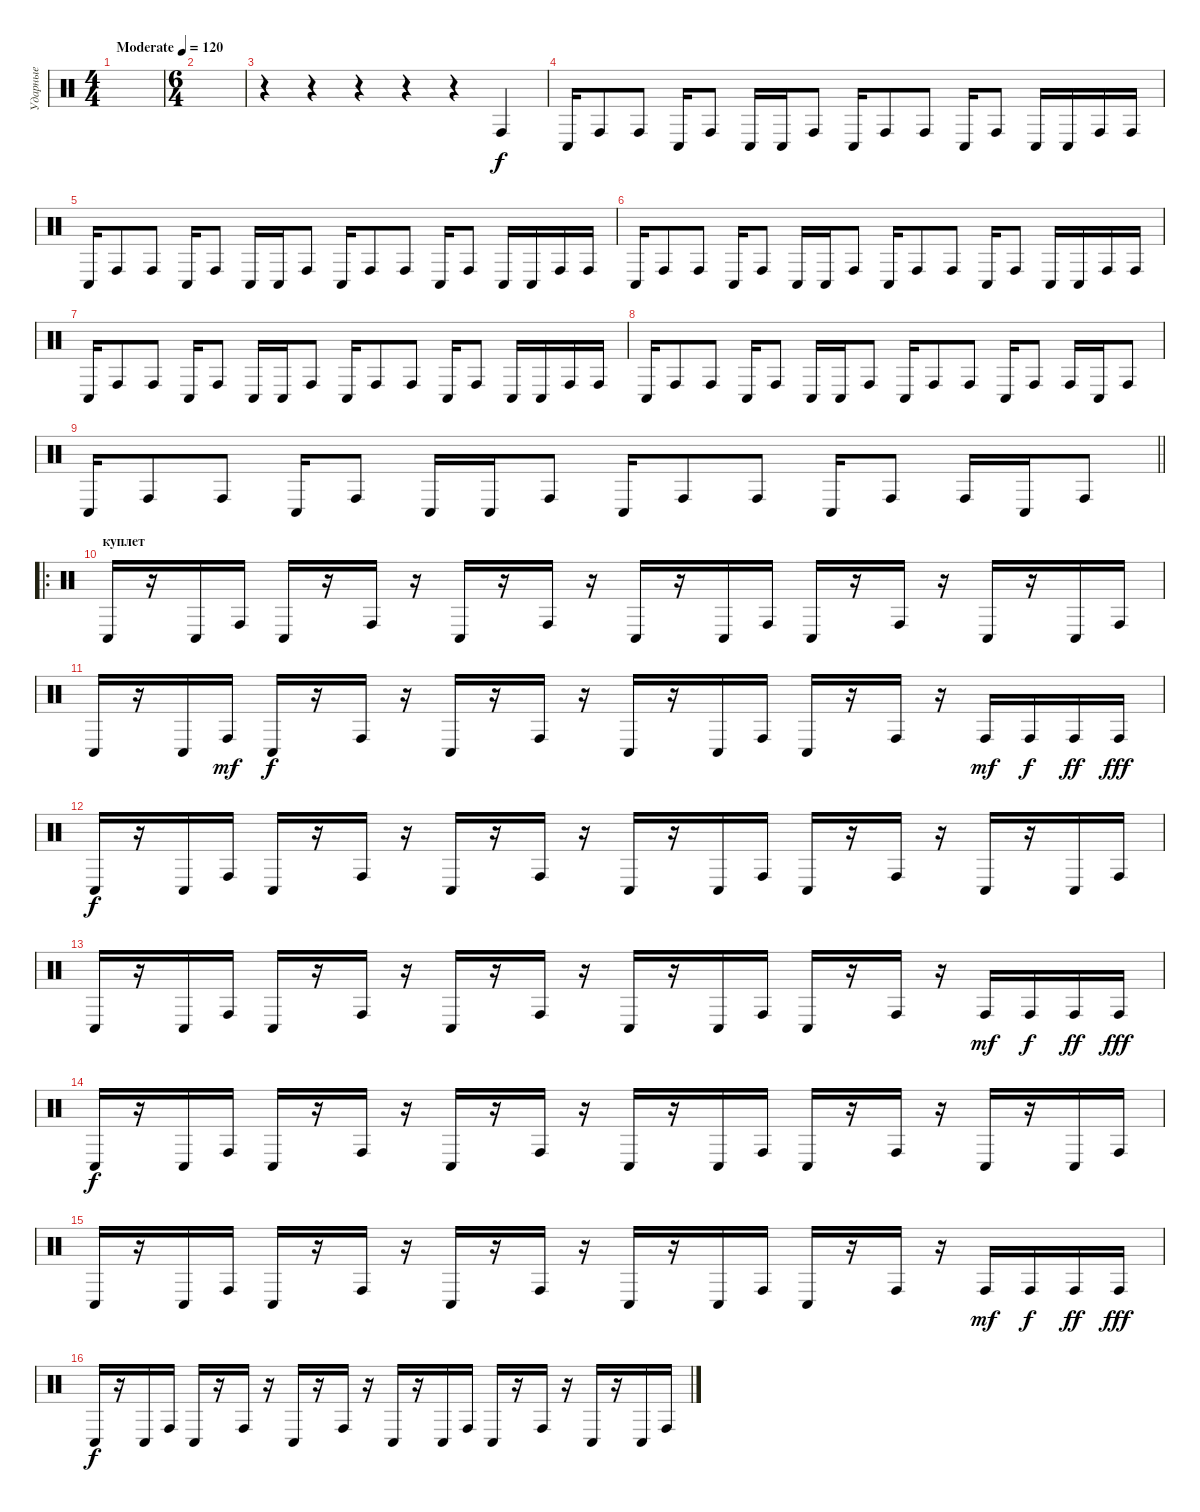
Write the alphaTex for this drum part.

\track ("Ударные" "Ударные") {instrument percussion}
\staff {score}
\articulation defaults
\ts (4 4)
\tempo (120 "Moderate")
\clef neutral
\ks c
|
\ts (6 4)
|
r.4 r.4 r.4 r.4 r.4 "Conga high (hit)".4 |
"Conga low (hit)".16 "Conga high (hit)".8 "Conga high (hit)".8 "Conga low (hit)".16 "Conga high (hit)".8 "Conga low (hit)".16 "Conga low (hit)".16 "Conga high (hit)".8 "Conga low (hit)".16 "Conga high (hit)".8 "Conga high (hit)".8 "Conga low (hit)".16 "Conga high (hit)".8 "Conga low (hit)".16 "Conga low (hit)".16 "Conga high (hit)".16 "Conga high (hit)".16 |
"Conga low (hit)".16 "Conga high (hit)".8 "Conga high (hit)".8 "Conga low (hit)".16 "Conga high (hit)".8 "Conga low (hit)".16 "Conga low (hit)".16 "Conga high (hit)".8 "Conga low (hit)".16 "Conga high (hit)".8 "Conga high (hit)".8 "Conga low (hit)".16 "Conga high (hit)".8 "Conga low (hit)".16 "Conga low (hit)".16 "Conga high (hit)".16 "Conga high (hit)".16 |
"Conga low (hit)".16 "Conga high (hit)".8 "Conga high (hit)".8 "Conga low (hit)".16 "Conga high (hit)".8 "Conga low (hit)".16 "Conga low (hit)".16 "Conga high (hit)".8 "Conga low (hit)".16 "Conga high (hit)".8 "Conga high (hit)".8 "Conga low (hit)".16 "Conga high (hit)".8 "Conga low (hit)".16 "Conga low (hit)".16 "Conga high (hit)".16 "Conga high (hit)".16 |
"Conga low (hit)".16 "Conga high (hit)".8 "Conga high (hit)".8 "Conga low (hit)".16 "Conga high (hit)".8 "Conga low (hit)".16 "Conga low (hit)".16 "Conga high (hit)".8 "Conga low (hit)".16 "Conga high (hit)".8 "Conga high (hit)".8 "Conga low (hit)".16 "Conga high (hit)".8 "Conga low (hit)".16 "Conga low (hit)".16 "Conga high (hit)".16 "Conga high (hit)".16 |
"Conga low (hit)".16 "Conga high (hit)".8 "Conga high (hit)".8 "Conga low (hit)".16 "Conga high (hit)".8 "Conga low (hit)".16 "Conga low (hit)".16 "Conga high (hit)".8 "Conga low (hit)".16 "Conga high (hit)".8 "Conga high (hit)".8 "Conga low (hit)".16 "Conga high (hit)".8 "Conga high (hit)".16 "Conga low (hit)".16 "Conga high (hit)".8 |
\barLineRight lightlight "Conga low (hit)".16 "Conga high (hit)".8 "Conga high (hit)".8 "Conga low (hit)".16 "Conga high (hit)".8 "Conga low (hit)".16 "Conga low (hit)".16 "Conga high (hit)".8 "Conga low (hit)".16 "Conga high (hit)".8 "Conga high (hit)".8 "Conga low (hit)".16 "Conga high (hit)".8 "Conga high (hit)".16 "Conga low (hit)".16 "Conga high (hit)".8
|
\ro
\section ("" "куплет")
"Conga low (hit)".16 r.16 "Conga low (hit)".16 "Conga high (hit)".16 "Conga low (hit)".16 r.16 "Conga high (hit)".16 r.16 "Conga low (hit)".16 r.16 "Conga high (hit)".16 r.16 "Conga low (hit)".16 r.16 "Conga low (hit)".16 "Conga high (hit)".16 "Conga low (hit)".16 r.16 "Conga high (hit)".16 r.16 "Conga low (hit)".16 r.16 "Conga low (hit)".16 "Conga high (hit)".16 |
"Conga low (hit)".16 r.16 "Conga low (hit)".16 "Conga high (hit)".16{dy mf} "Conga low (hit)".16{dy f} r.16 "Conga high (hit)".16 r.16 "Conga low (hit)".16 r.16 "Conga high (hit)".16 r.16 "Conga low (hit)".16 r.16 "Conga low (hit)".16 "Conga high (hit)".16 "Conga low (hit)".16 r.16 "Conga high (hit)".16 r.16 "Conga high (hit)".16{dy mf} "Conga high (hit)".16{dy f} "Conga high (hit)".16{dy ff} "Conga high (hit)".16{dy fff} |
"Conga low (hit)".16{dy f} r.16 "Conga low (hit)".16 "Conga high (hit)".16 "Conga low (hit)".16 r.16 "Conga high (hit)".16 r.16 "Conga low (hit)".16 r.16 "Conga high (hit)".16 r.16 "Conga low (hit)".16 r.16 "Conga low (hit)".16 "Conga high (hit)".16 "Conga low (hit)".16 r.16 "Conga high (hit)".16 r.16 "Conga low (hit)".16 r.16 "Conga low (hit)".16 "Conga high (hit)".16 |
"Conga low (hit)".16 r.16 "Conga low (hit)".16 "Conga high (hit)".16 "Conga low (hit)".16 r.16 "Conga high (hit)".16 r.16 "Conga low (hit)".16 r.16 "Conga high (hit)".16 r.16 "Conga low (hit)".16 r.16 "Conga low (hit)".16 "Conga high (hit)".16 "Conga low (hit)".16 r.16 "Conga high (hit)".16 r.16 "Conga high (hit)".16{dy mf} "Conga high (hit)".16{dy f} "Conga high (hit)".16{dy ff} "Conga high (hit)".16{dy fff} |
"Conga low (hit)".16{dy f} r.16 "Conga low (hit)".16 "Conga high (hit)".16 "Conga low (hit)".16 r.16 "Conga high (hit)".16 r.16 "Conga low (hit)".16 r.16 "Conga high (hit)".16 r.16 "Conga low (hit)".16 r.16 "Conga low (hit)".16 "Conga high (hit)".16 "Conga low (hit)".16 r.16 "Conga high (hit)".16 r.16 "Conga low (hit)".16 r.16 "Conga low (hit)".16 "Conga high (hit)".16 |
"Conga low (hit)".16 r.16 "Conga low (hit)".16 "Conga high (hit)".16 "Conga low (hit)".16 r.16 "Conga high (hit)".16 r.16 "Conga low (hit)".16 r.16 "Conga high (hit)".16 r.16 "Conga low (hit)".16 r.16 "Conga low (hit)".16 "Conga high (hit)".16 "Conga low (hit)".16 r.16 "Conga high (hit)".16 r.16 "Conga high (hit)".16{dy mf} "Conga high (hit)".16{dy f} "Conga high (hit)".16{dy ff} "Conga high (hit)".16{dy fff} |
"Conga low (hit)".16{dy f} r.16 "Conga low (hit)".16 "Conga high (hit)".16 "Conga low (hit)".16 r.16 "Conga high (hit)".16 r.16 "Conga low (hit)".16 r.16 "Conga high (hit)".16 r.16 "Conga low (hit)".16 r.16 "Conga low (hit)".16 "Conga high (hit)".16 "Conga low (hit)".16 r.16 "Conga high (hit)".16 r.16 "Conga low (hit)".16 r.16 "Conga low (hit)".16 "Conga high (hit)".16
